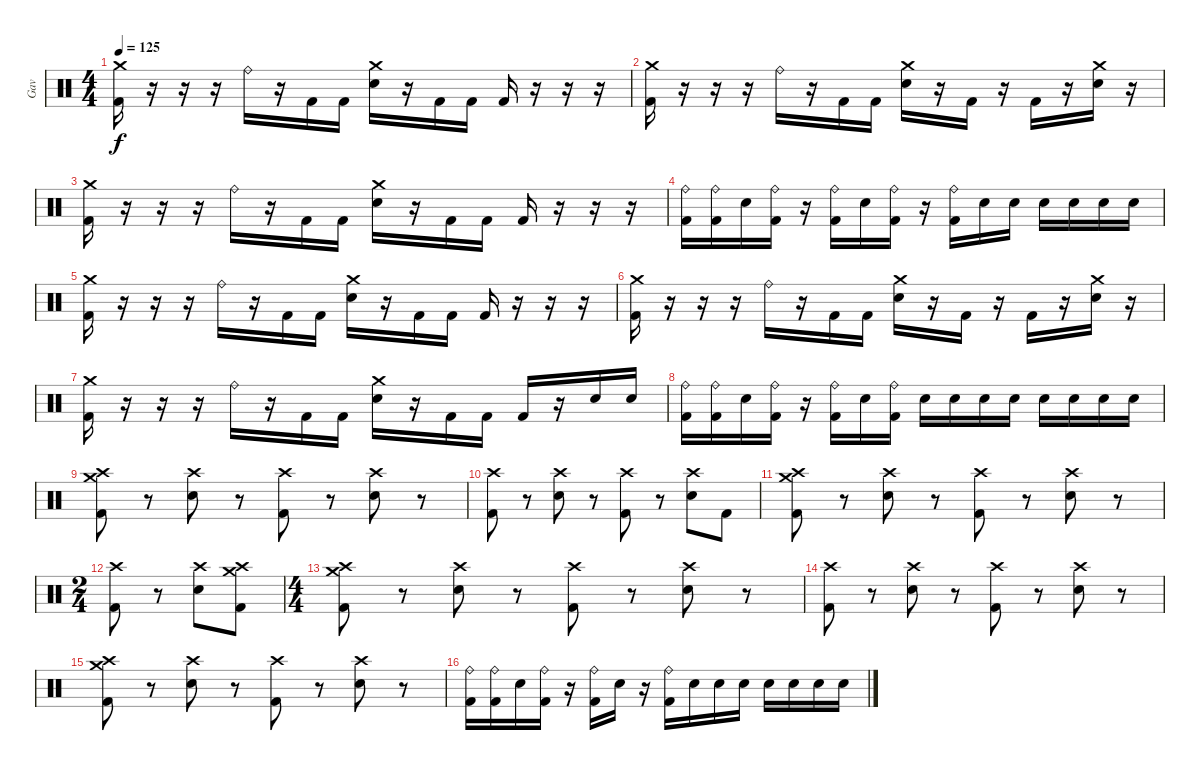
\track ("Gav" "Gav") {instrument percussion}
\staff {score}
\articulation defaults
\ts (4 4)
\tempo 125
\clef neutral
\ks c
("Crash medium (hit)" "Kick (hit) 2").16{dy f} r.16 r.16 r.16 "Ride (bell)".16 r.16 "Kick (hit) 2".16 "Kick (hit) 2".16 ("Crash medium (hit)" "Snare (hit) 2").16 r.16 "Kick (hit) 2".16 "Kick (hit) 2".16 "Kick (hit) 2".16 r.16 r.16 r.16 |
("Crash medium (hit)" "Kick (hit) 2").16 r.16 r.16 r.16 "Ride (bell)".16 r.16 "Kick (hit) 2".16 "Kick (hit) 2".16 ("Crash medium (hit)" "Snare (hit) 2").16 r.16 "Kick (hit) 2".16 r.16 "Kick (hit) 2".16 r.16 ("Crash medium (hit)" "Snare (hit) 2").16 r.16 |
("Crash medium (hit)" "Kick (hit) 2").16 r.16 r.16 r.16 "Ride (bell)".16 r.16 "Kick (hit) 2".16 "Kick (hit) 2".16 ("Crash medium (hit)" "Snare (hit) 2").16 r.16 "Kick (hit) 2".16 "Kick (hit) 2".16 "Kick (hit) 2".16 r.16 r.16 r.16 |
("Ride (bell)" "Kick (hit) 2").16 ("Ride (bell)" "Kick (hit) 2").16 "Snare (hit) 2".16 ("Ride (bell)" "Kick (hit) 2").16 r.16 ("Ride (bell)" "Kick (hit) 2").16 "Snare (hit) 2".16 ("Ride (bell)" "Kick (hit) 2").16 r.16 ("Ride (bell)" "Kick (hit) 2").16 "Snare (hit) 2".16 "Snare (hit) 2".16 "Snare (hit) 2".16 "Snare (hit) 2".16 "Snare (hit) 2".16 "Snare (hit) 2".16 |
("Crash medium (hit)" "Kick (hit) 2").16 r.16 r.16 r.16 "Ride (bell)".16 r.16 "Kick (hit) 2".16 "Kick (hit) 2".16 ("Crash medium (hit)" "Snare (hit) 2").16 r.16 "Kick (hit) 2".16 "Kick (hit) 2".16 "Kick (hit) 2".16 r.16 r.16 r.16 |
("Crash medium (hit)" "Kick (hit) 2").16 r.16 r.16 r.16 "Ride (bell)".16 r.16 "Kick (hit) 2".16 "Kick (hit) 2".16 ("Crash medium (hit)" "Snare (hit) 2").16 r.16 "Kick (hit) 2".16 r.16 "Kick (hit) 2".16 r.16 ("Crash medium (hit)" "Snare (hit) 2").16 r.16 |
("Crash medium (hit)" "Kick (hit) 2").16 r.16 r.16 r.16 "Ride (bell)".16 r.16 "Kick (hit) 2".16 "Kick (hit) 2".16 ("Crash medium (hit)" "Snare (hit) 2").16 r.16 "Kick (hit) 2".16 "Kick (hit) 2".16 "Kick (hit) 2".16 r.16 "Snare (hit) 2".16 "Snare (hit) 2".16 |
("Ride (bell)" "Kick (hit) 2").16 ("Ride (bell)" "Kick (hit) 2").16 "Snare (hit) 2".16 ("Ride (bell)" "Kick (hit) 2").16 r.16 ("Ride (bell)" "Kick (hit) 2").16 "Snare (hit) 2".16 ("Ride (bell)" "Kick (hit) 2").16 "Snare (hit) 2".16 "Snare (hit) 2".16 "Snare (hit) 2".16 "Snare (hit) 2".16 "Snare (hit) 2".16 "Snare (hit) 2".16 "Snare (hit) 2".16 "Snare (hit) 2".16 |
("Crash high (hit)" "Crash medium (hit)" "Kick (hit) 2").8 r.8 ("Crash high (hit)" "Snare (hit) 2").8 r.8 ("Crash high (hit)" "Kick (hit) 2").8 r.8 ("Crash high (hit)" "Snare (hit) 2").8 r.8 |
("Crash high (hit)" "Kick (hit) 2").8 r.8 ("Crash high (hit)" "Snare (hit) 2").8 r.8 ("Crash high (hit)" "Kick (hit) 2").8 r.8 ("Crash high (hit)" "Snare (hit) 2").8 "Kick (hit) 2".8 |
("Crash high (hit)" "Crash medium (hit)" "Kick (hit) 2").8 r.8 ("Crash high (hit)" "Snare (hit) 2").8 r.8 ("Crash high (hit)" "Kick (hit) 2").8 r.8 ("Crash high (hit)" "Snare (hit) 2").8 r.8 |
\ts (2 4)
("Crash high (hit)" "Kick (hit) 2").8 r.8 ("Crash high (hit)" "Snare (hit) 2").8 ("Crash high (hit)" "Crash medium (hit)" "Kick (hit) 2").8 |
\ts (4 4)
("Crash high (hit)" "Crash medium (hit)" "Kick (hit) 2").8 r.8 ("Crash high (hit)" "Snare (hit) 2").8 r.8 ("Crash high (hit)" "Kick (hit) 2").8 r.8 ("Crash high (hit)" "Snare (hit) 2").8 r.8 |
("Crash high (hit)" "Kick (hit) 2").8 r.8 ("Crash high (hit)" "Snare (hit) 2").8 r.8 ("Crash high (hit)" "Kick (hit) 2").8 r.8 ("Crash high (hit)" "Snare (hit) 2").8 r.8 |
("Crash high (hit)" "Crash medium (hit)" "Kick (hit) 2").8 r.8 ("Crash high (hit)" "Snare (hit) 2").8 r.8 ("Crash high (hit)" "Kick (hit) 2").8 r.8 ("Crash high (hit)" "Snare (hit) 2").8 r.8 |
("Ride (bell)" "Kick (hit) 2").16 ("Ride (bell)" "Kick (hit) 2").16 "Snare (hit) 2".16 ("Ride (bell)" "Kick (hit) 2").16 r.16 ("Ride (bell)" "Kick (hit) 2").16 "Snare (hit) 2".16 r.16 ("Ride (bell)" "Kick (hit) 2").16 "Snare (hit) 2".16 "Snare (hit) 2".16 "Snare (hit) 2".16 "Snare (hit) 2".16 "Snare (hit) 2".16 "Snare (hit) 2".16 "Snare (hit) 2".16
